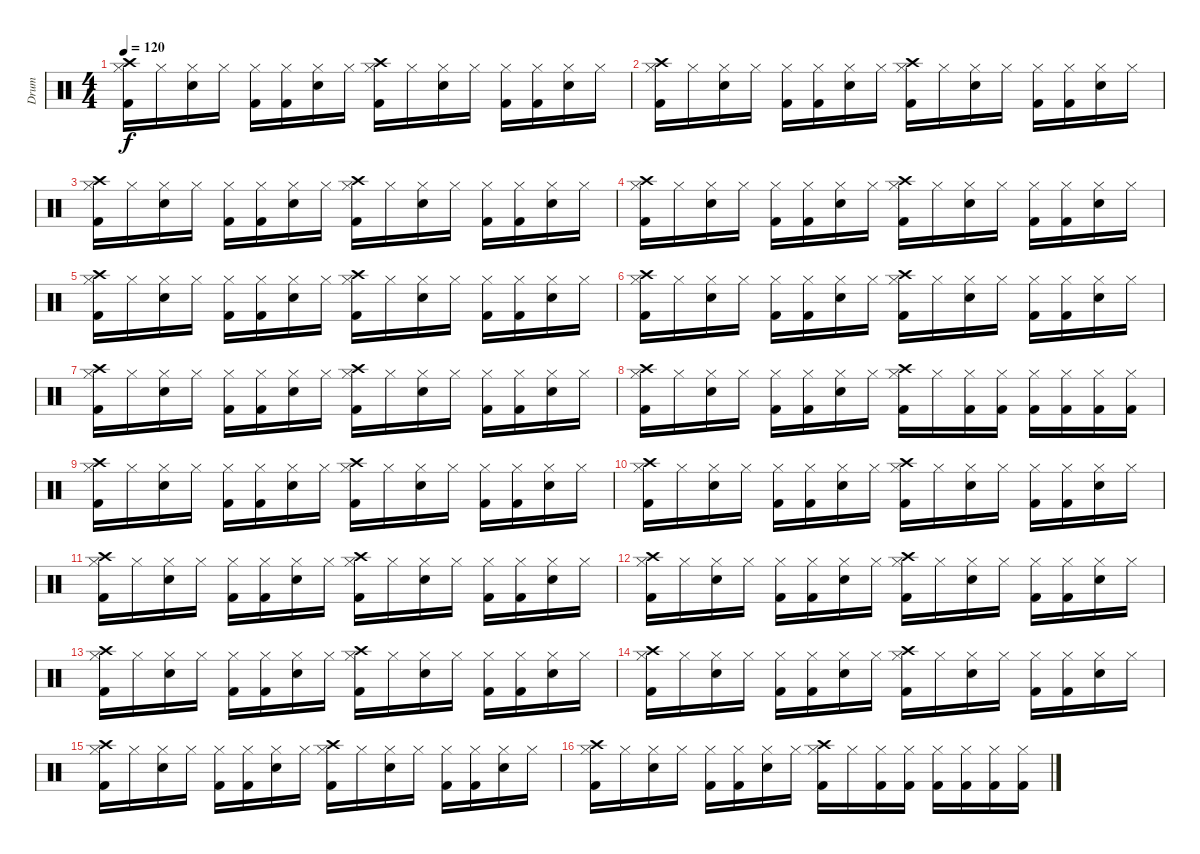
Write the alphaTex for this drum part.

\track ("Drum" "Drum") {instrument percussion}
\staff {score}
\articulation defaults
\ts (4 4)
\tempo 120
\clef neutral
\ks c
("Kick (hit) 2" "Hi-Hat (closed)" "Crash high (hit)").16{dy f} "Hi-Hat (closed)".16 ("Electric Snare (hit)" "Hi-Hat (closed)").16 "Hi-Hat (closed)".16 ("Kick (hit) 2" "Hi-Hat (closed)").16 ("Kick (hit) 2" "Hi-Hat (closed)").16 ("Electric Snare (hit)" "Hi-Hat (closed)").16 "Hi-Hat (closed)".16 ("Kick (hit) 2" "Hi-Hat (closed)" "Crash high (hit)").16 "Hi-Hat (closed)".16 ("Electric Snare (hit)" "Hi-Hat (closed)").16 "Hi-Hat (closed)".16 ("Kick (hit) 2" "Hi-Hat (closed)").16 ("Kick (hit) 2" "Hi-Hat (closed)").16 ("Electric Snare (hit)" "Hi-Hat (closed)").16 "Hi-Hat (closed)".16 |
("Kick (hit) 2" "Hi-Hat (closed)" "Crash high (hit)").16 "Hi-Hat (closed)".16 ("Electric Snare (hit)" "Hi-Hat (closed)").16 "Hi-Hat (closed)".16 ("Kick (hit) 2" "Hi-Hat (closed)").16 ("Kick (hit) 2" "Hi-Hat (closed)").16 ("Electric Snare (hit)" "Hi-Hat (closed)").16 "Hi-Hat (closed)".16 ("Kick (hit) 2" "Hi-Hat (closed)" "Crash high (hit)").16 "Hi-Hat (closed)".16 ("Electric Snare (hit)" "Hi-Hat (closed)").16 "Hi-Hat (closed)".16 ("Kick (hit) 2" "Hi-Hat (closed)").16 ("Kick (hit) 2" "Hi-Hat (closed)").16 ("Electric Snare (hit)" "Hi-Hat (closed)").16 "Hi-Hat (closed)".16 |
("Kick (hit) 2" "Hi-Hat (closed)" "Crash high (hit)").16 "Hi-Hat (closed)".16 ("Electric Snare (hit)" "Hi-Hat (closed)").16 "Hi-Hat (closed)".16 ("Kick (hit) 2" "Hi-Hat (closed)").16 ("Kick (hit) 2" "Hi-Hat (closed)").16 ("Electric Snare (hit)" "Hi-Hat (closed)").16 "Hi-Hat (closed)".16 ("Kick (hit) 2" "Hi-Hat (closed)" "Crash high (hit)").16 "Hi-Hat (closed)".16 ("Electric Snare (hit)" "Hi-Hat (closed)").16 "Hi-Hat (closed)".16 ("Kick (hit) 2" "Hi-Hat (closed)").16 ("Kick (hit) 2" "Hi-Hat (closed)").16 ("Electric Snare (hit)" "Hi-Hat (closed)").16 "Hi-Hat (closed)".16 |
("Kick (hit) 2" "Hi-Hat (closed)" "Crash high (hit)").16 "Hi-Hat (closed)".16 ("Electric Snare (hit)" "Hi-Hat (closed)").16 "Hi-Hat (closed)".16 ("Kick (hit) 2" "Hi-Hat (closed)").16 ("Kick (hit) 2" "Hi-Hat (closed)").16 ("Electric Snare (hit)" "Hi-Hat (closed)").16 "Hi-Hat (closed)".16 ("Kick (hit) 2" "Hi-Hat (closed)" "Crash high (hit)").16 "Hi-Hat (closed)".16 ("Electric Snare (hit)" "Hi-Hat (closed)").16 "Hi-Hat (closed)".16 ("Kick (hit) 2" "Hi-Hat (closed)").16 ("Kick (hit) 2" "Hi-Hat (closed)").16 ("Electric Snare (hit)" "Hi-Hat (closed)").16 "Hi-Hat (closed)".16 |
("Kick (hit) 2" "Hi-Hat (closed)" "Crash high (hit)").16 "Hi-Hat (closed)".16 ("Electric Snare (hit)" "Hi-Hat (closed)").16 "Hi-Hat (closed)".16 ("Kick (hit) 2" "Hi-Hat (closed)").16 ("Kick (hit) 2" "Hi-Hat (closed)").16 ("Electric Snare (hit)" "Hi-Hat (closed)").16 "Hi-Hat (closed)".16 ("Kick (hit) 2" "Hi-Hat (closed)" "Crash high (hit)").16 "Hi-Hat (closed)".16 ("Electric Snare (hit)" "Hi-Hat (closed)").16 "Hi-Hat (closed)".16 ("Kick (hit) 2" "Hi-Hat (closed)").16 ("Kick (hit) 2" "Hi-Hat (closed)").16 ("Electric Snare (hit)" "Hi-Hat (closed)").16 "Hi-Hat (closed)".16 |
("Kick (hit) 2" "Hi-Hat (closed)" "Crash high (hit)").16 "Hi-Hat (closed)".16 ("Electric Snare (hit)" "Hi-Hat (closed)").16 "Hi-Hat (closed)".16 ("Kick (hit) 2" "Hi-Hat (closed)").16 ("Kick (hit) 2" "Hi-Hat (closed)").16 ("Electric Snare (hit)" "Hi-Hat (closed)").16 "Hi-Hat (closed)".16 ("Kick (hit) 2" "Hi-Hat (closed)" "Crash high (hit)").16 "Hi-Hat (closed)".16 ("Electric Snare (hit)" "Hi-Hat (closed)").16 "Hi-Hat (closed)".16 ("Kick (hit) 2" "Hi-Hat (closed)").16 ("Kick (hit) 2" "Hi-Hat (closed)").16 ("Electric Snare (hit)" "Hi-Hat (closed)").16 "Hi-Hat (closed)".16 |
("Kick (hit) 2" "Hi-Hat (closed)" "Crash high (hit)").16 "Hi-Hat (closed)".16 ("Electric Snare (hit)" "Hi-Hat (closed)").16 "Hi-Hat (closed)".16 ("Kick (hit) 2" "Hi-Hat (closed)").16 ("Kick (hit) 2" "Hi-Hat (closed)").16 ("Electric Snare (hit)" "Hi-Hat (closed)").16 "Hi-Hat (closed)".16 ("Kick (hit) 2" "Hi-Hat (closed)" "Crash high (hit)").16 "Hi-Hat (closed)".16 ("Electric Snare (hit)" "Hi-Hat (closed)").16 "Hi-Hat (closed)".16 ("Kick (hit) 2" "Hi-Hat (closed)").16 ("Kick (hit) 2" "Hi-Hat (closed)").16 ("Electric Snare (hit)" "Hi-Hat (closed)").16 "Hi-Hat (closed)".16 |
("Kick (hit) 2" "Hi-Hat (closed)" "Crash high (hit)").16 "Hi-Hat (closed)".16 ("Electric Snare (hit)" "Hi-Hat (closed)").16 "Hi-Hat (closed)".16 ("Kick (hit) 2" "Hi-Hat (closed)").16 ("Kick (hit) 2" "Hi-Hat (closed)").16 ("Electric Snare (hit)" "Hi-Hat (closed)").16 "Hi-Hat (closed)".16 ("Kick (hit) 2" "Hi-Hat (closed)" "Crash high (hit)").16 "Hi-Hat (closed)".16 ("Kick (hit) 2" "Hi-Hat (closed)").16 ("Kick (hit) 2" "Hi-Hat (closed)").16 ("Kick (hit) 2" "Hi-Hat (closed)").16 ("Kick (hit) 2" "Hi-Hat (closed)").16 ("Kick (hit) 2" "Hi-Hat (closed)").16 ("Kick (hit) 2" "Hi-Hat (closed)").16 |
("Kick (hit) 2" "Hi-Hat (closed)" "Crash high (hit)").16 "Hi-Hat (closed)".16 ("Electric Snare (hit)" "Hi-Hat (closed)").16 "Hi-Hat (closed)".16 ("Kick (hit) 2" "Hi-Hat (closed)").16 ("Kick (hit) 2" "Hi-Hat (closed)").16 ("Electric Snare (hit)" "Hi-Hat (closed)").16 "Hi-Hat (closed)".16 ("Kick (hit) 2" "Hi-Hat (closed)" "Crash high (hit)").16 "Hi-Hat (closed)".16 ("Electric Snare (hit)" "Hi-Hat (closed)").16 "Hi-Hat (closed)".16 ("Kick (hit) 2" "Hi-Hat (closed)").16 ("Kick (hit) 2" "Hi-Hat (closed)").16 ("Electric Snare (hit)" "Hi-Hat (closed)").16 "Hi-Hat (closed)".16 |
("Kick (hit) 2" "Hi-Hat (closed)" "Crash high (hit)").16 "Hi-Hat (closed)".16 ("Electric Snare (hit)" "Hi-Hat (closed)").16 "Hi-Hat (closed)".16 ("Kick (hit) 2" "Hi-Hat (closed)").16 ("Kick (hit) 2" "Hi-Hat (closed)").16 ("Electric Snare (hit)" "Hi-Hat (closed)").16 "Hi-Hat (closed)".16 ("Kick (hit) 2" "Hi-Hat (closed)" "Crash high (hit)").16 "Hi-Hat (closed)".16 ("Electric Snare (hit)" "Hi-Hat (closed)").16 "Hi-Hat (closed)".16 ("Kick (hit) 2" "Hi-Hat (closed)").16 ("Kick (hit) 2" "Hi-Hat (closed)").16 ("Electric Snare (hit)" "Hi-Hat (closed)").16 "Hi-Hat (closed)".16 |
("Kick (hit) 2" "Hi-Hat (closed)" "Crash high (hit)").16 "Hi-Hat (closed)".16 ("Electric Snare (hit)" "Hi-Hat (closed)").16 "Hi-Hat (closed)".16 ("Kick (hit) 2" "Hi-Hat (closed)").16 ("Kick (hit) 2" "Hi-Hat (closed)").16 ("Electric Snare (hit)" "Hi-Hat (closed)").16 "Hi-Hat (closed)".16 ("Kick (hit) 2" "Hi-Hat (closed)" "Crash high (hit)").16 "Hi-Hat (closed)".16 ("Electric Snare (hit)" "Hi-Hat (closed)").16 "Hi-Hat (closed)".16 ("Kick (hit) 2" "Hi-Hat (closed)").16 ("Kick (hit) 2" "Hi-Hat (closed)").16 ("Electric Snare (hit)" "Hi-Hat (closed)").16 "Hi-Hat (closed)".16 |
("Kick (hit) 2" "Hi-Hat (closed)" "Crash high (hit)").16 "Hi-Hat (closed)".16 ("Electric Snare (hit)" "Hi-Hat (closed)").16 "Hi-Hat (closed)".16 ("Kick (hit) 2" "Hi-Hat (closed)").16 ("Kick (hit) 2" "Hi-Hat (closed)").16 ("Electric Snare (hit)" "Hi-Hat (closed)").16 "Hi-Hat (closed)".16 ("Kick (hit) 2" "Hi-Hat (closed)" "Crash high (hit)").16 "Hi-Hat (closed)".16 ("Electric Snare (hit)" "Hi-Hat (closed)").16 "Hi-Hat (closed)".16 ("Kick (hit) 2" "Hi-Hat (closed)").16 ("Kick (hit) 2" "Hi-Hat (closed)").16 ("Electric Snare (hit)" "Hi-Hat (closed)").16 "Hi-Hat (closed)".16 |
("Kick (hit) 2" "Hi-Hat (closed)" "Crash high (hit)").16 "Hi-Hat (closed)".16 ("Electric Snare (hit)" "Hi-Hat (closed)").16 "Hi-Hat (closed)".16 ("Kick (hit) 2" "Hi-Hat (closed)").16 ("Kick (hit) 2" "Hi-Hat (closed)").16 ("Electric Snare (hit)" "Hi-Hat (closed)").16 "Hi-Hat (closed)".16 ("Kick (hit) 2" "Hi-Hat (closed)" "Crash high (hit)").16 "Hi-Hat (closed)".16 ("Electric Snare (hit)" "Hi-Hat (closed)").16 "Hi-Hat (closed)".16 ("Kick (hit) 2" "Hi-Hat (closed)").16 ("Kick (hit) 2" "Hi-Hat (closed)").16 ("Electric Snare (hit)" "Hi-Hat (closed)").16 "Hi-Hat (closed)".16 |
("Kick (hit) 2" "Hi-Hat (closed)" "Crash high (hit)").16 "Hi-Hat (closed)".16 ("Electric Snare (hit)" "Hi-Hat (closed)").16 "Hi-Hat (closed)".16 ("Kick (hit) 2" "Hi-Hat (closed)").16 ("Kick (hit) 2" "Hi-Hat (closed)").16 ("Electric Snare (hit)" "Hi-Hat (closed)").16 "Hi-Hat (closed)".16 ("Kick (hit) 2" "Hi-Hat (closed)" "Crash high (hit)").16 "Hi-Hat (closed)".16 ("Electric Snare (hit)" "Hi-Hat (closed)").16 "Hi-Hat (closed)".16 ("Kick (hit) 2" "Hi-Hat (closed)").16 ("Kick (hit) 2" "Hi-Hat (closed)").16 ("Electric Snare (hit)" "Hi-Hat (closed)").16 "Hi-Hat (closed)".16 |
("Kick (hit) 2" "Hi-Hat (closed)" "Crash high (hit)").16 "Hi-Hat (closed)".16 ("Electric Snare (hit)" "Hi-Hat (closed)").16 "Hi-Hat (closed)".16 ("Kick (hit) 2" "Hi-Hat (closed)").16 ("Kick (hit) 2" "Hi-Hat (closed)").16 ("Electric Snare (hit)" "Hi-Hat (closed)").16 "Hi-Hat (closed)".16 ("Kick (hit) 2" "Hi-Hat (closed)" "Crash high (hit)").16 "Hi-Hat (closed)".16 ("Electric Snare (hit)" "Hi-Hat (closed)").16 "Hi-Hat (closed)".16 ("Kick (hit) 2" "Hi-Hat (closed)").16 ("Kick (hit) 2" "Hi-Hat (closed)").16 ("Electric Snare (hit)" "Hi-Hat (closed)").16 "Hi-Hat (closed)".16 |
("Kick (hit) 2" "Hi-Hat (closed)" "Crash high (hit)").16 "Hi-Hat (closed)".16 ("Electric Snare (hit)" "Hi-Hat (closed)").16 "Hi-Hat (closed)".16 ("Kick (hit) 2" "Hi-Hat (closed)").16 ("Kick (hit) 2" "Hi-Hat (closed)").16 ("Electric Snare (hit)" "Hi-Hat (closed)").16 "Hi-Hat (closed)".16 ("Kick (hit) 2" "Hi-Hat (closed)" "Crash high (hit)").16 "Hi-Hat (closed)".16 ("Kick (hit) 2" "Hi-Hat (closed)").16 ("Kick (hit) 2" "Hi-Hat (closed)").16 ("Kick (hit) 2" "Hi-Hat (closed)").16 ("Kick (hit) 2" "Hi-Hat (closed)").16 ("Kick (hit) 2" "Hi-Hat (closed)").16 ("Kick (hit) 2" "Hi-Hat (closed)").16
